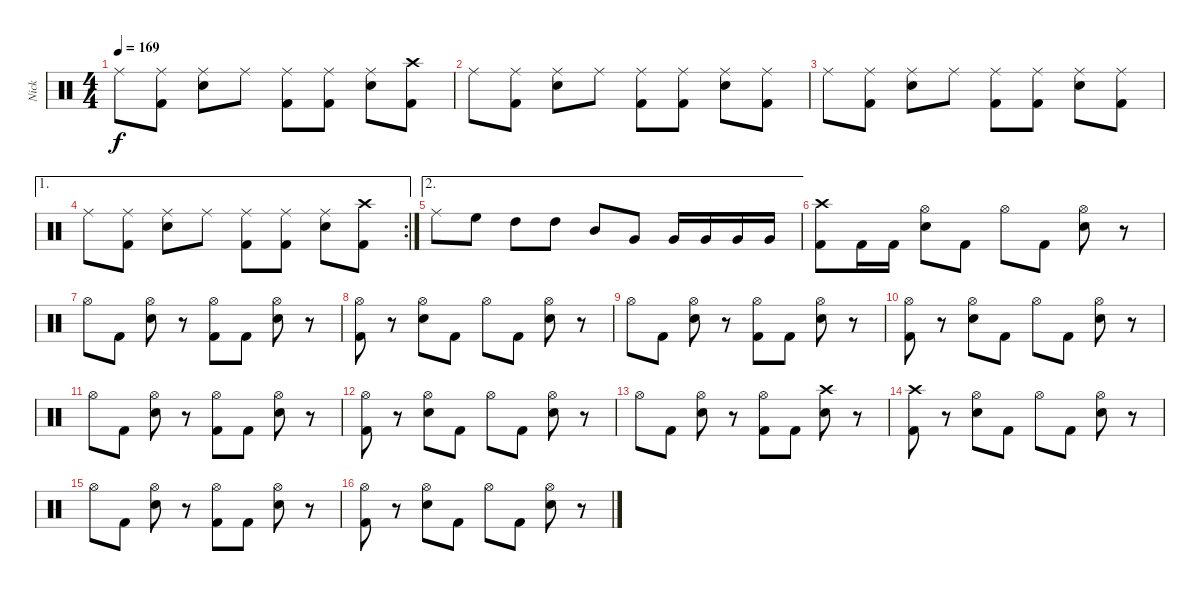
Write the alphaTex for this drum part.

\track ("Nick" "Nick") {instrument percussion}
\staff {score}
\articulation defaults
\ts (4 4)
\tempo 169
\clef neutral
\ks c "Ride (middle)".8{dy f}
("Ride (middle)" "Kick (hit) 2").8 ("Ride (middle)" "Snare (hit) 2").8 "Ride (middle)".8 ("Ride (middle)" "Kick (hit) 2").8 ("Ride (middle)" "Kick (hit) 2").8 ("Ride (middle)" "Snare (hit) 2").8 ("Crash high (hit)" "Kick (hit) 2").8 |
"Ride (middle)".8 ("Ride (middle)" "Kick (hit) 2").8 ("Ride (middle)" "Snare (hit) 2").8 "Ride (middle)".8 ("Ride (middle)" "Kick (hit) 2").8 ("Ride (middle)" "Kick (hit) 2").8 ("Ride (middle)" "Snare (hit) 2").8 ("Ride (middle)" "Kick (hit) 2").8 |
"Ride (middle)".8 ("Ride (middle)" "Kick (hit) 2").8 ("Ride (middle)" "Snare (hit) 2").8 "Ride (middle)".8 ("Ride (middle)" "Kick (hit) 2").8 ("Ride (middle)" "Kick (hit) 2").8 ("Ride (middle)" "Snare (hit) 2").8 ("Ride (middle)" "Kick (hit) 2").8 |
\ae 1
\rc 2 "Ride (middle)".8
("Ride (middle)" "Kick (hit) 2").8 ("Ride (middle)" "Snare (hit) 2").8 "Ride (middle)".8 ("Ride (middle)" "Kick (hit) 2").8 ("Ride (middle)" "Kick (hit) 2").8 ("Ride (middle)" "Snare (hit) 2").8 ("Crash high (hit)" "Kick (hit) 2").8 |
\ae 2 "Ride (middle)".8 "High Floor Tom (hit)".8 "High Tom (hit)".8 "High Tom (hit)".8 "Mid Tom (hit)".8 "Very Low Tom (hit)".8 "Very Low Tom (hit)".16 "Very Low Tom (hit)".16 "Very Low Tom (hit)".16 "Very Low Tom (hit)".16
|
("Crash high (hit)" "Kick (hit) 2").8 "Kick (hit) 2".16 "Kick (hit) 2".16 ("Hi-Hat (open)" "Snare (hit) 2").8 "Kick (hit) 2".8 "Hi-Hat (open)".8 "Kick (hit) 2".8 ("Hi-Hat (open)" "Snare (hit) 2").8 r.8 |
"Hi-Hat (open)".8 "Kick (hit) 2".8 ("Hi-Hat (open)" "Snare (hit) 2").8 r.8 ("Hi-Hat (open)" "Kick (hit) 2").8 "Kick (hit) 2".8 ("Hi-Hat (open)" "Snare (hit) 2").8 r.8 |
("Hi-Hat (open)" "Kick (hit) 2").8 r.8 ("Hi-Hat (open)" "Snare (hit) 2").8 "Kick (hit) 2".8 "Hi-Hat (open)".8 "Kick (hit) 2".8 ("Hi-Hat (open)" "Snare (hit) 2").8 r.8 |
"Hi-Hat (open)".8 "Kick (hit) 2".8 ("Hi-Hat (open)" "Snare (hit) 2").8 r.8 ("Hi-Hat (open)" "Kick (hit) 2").8 "Kick (hit) 2".8 ("Hi-Hat (open)" "Snare (hit) 2").8 r.8 |
("Hi-Hat (open)" "Kick (hit) 2").8 r.8 ("Hi-Hat (open)" "Snare (hit) 2").8 "Kick (hit) 2".8 "Hi-Hat (open)".8 "Kick (hit) 2".8 ("Hi-Hat (open)" "Snare (hit) 2").8 r.8 |
"Hi-Hat (open)".8 "Kick (hit) 2".8 ("Hi-Hat (open)" "Snare (hit) 2").8 r.8 ("Hi-Hat (open)" "Kick (hit) 2").8 "Kick (hit) 2".8 ("Hi-Hat (open)" "Snare (hit) 2").8 r.8 |
("Hi-Hat (open)" "Kick (hit) 2").8 r.8 ("Hi-Hat (open)" "Snare (hit) 2").8 "Kick (hit) 2".8 "Hi-Hat (open)".8 "Kick (hit) 2".8 ("Hi-Hat (open)" "Snare (hit) 2").8 r.8 |
"Hi-Hat (open)".8 "Kick (hit) 2".8 ("Hi-Hat (open)" "Snare (hit) 2").8 r.8 ("Hi-Hat (open)" "Kick (hit) 2").8 "Kick (hit) 2".8 ("Crash high (hit)" "Snare (hit) 2").8 r.8 |
("Crash high (hit)" "Kick (hit) 2").8 r.8 ("Hi-Hat (open)" "Snare (hit) 2").8 "Kick (hit) 2".8 "Hi-Hat (open)".8 "Kick (hit) 2".8 ("Hi-Hat (open)" "Snare (hit) 2").8 r.8 |
"Hi-Hat (open)".8 "Kick (hit) 2".8 ("Hi-Hat (open)" "Snare (hit) 2").8 r.8 ("Hi-Hat (open)" "Kick (hit) 2").8 "Kick (hit) 2".8 ("Hi-Hat (open)" "Snare (hit) 2").8 r.8 |
("Hi-Hat (open)" "Kick (hit) 2").8 r.8 ("Hi-Hat (open)" "Snare (hit) 2").8 "Kick (hit) 2".8 "Hi-Hat (open)".8 "Kick (hit) 2".8 ("Hi-Hat (open)" "Snare (hit) 2").8 r.8
